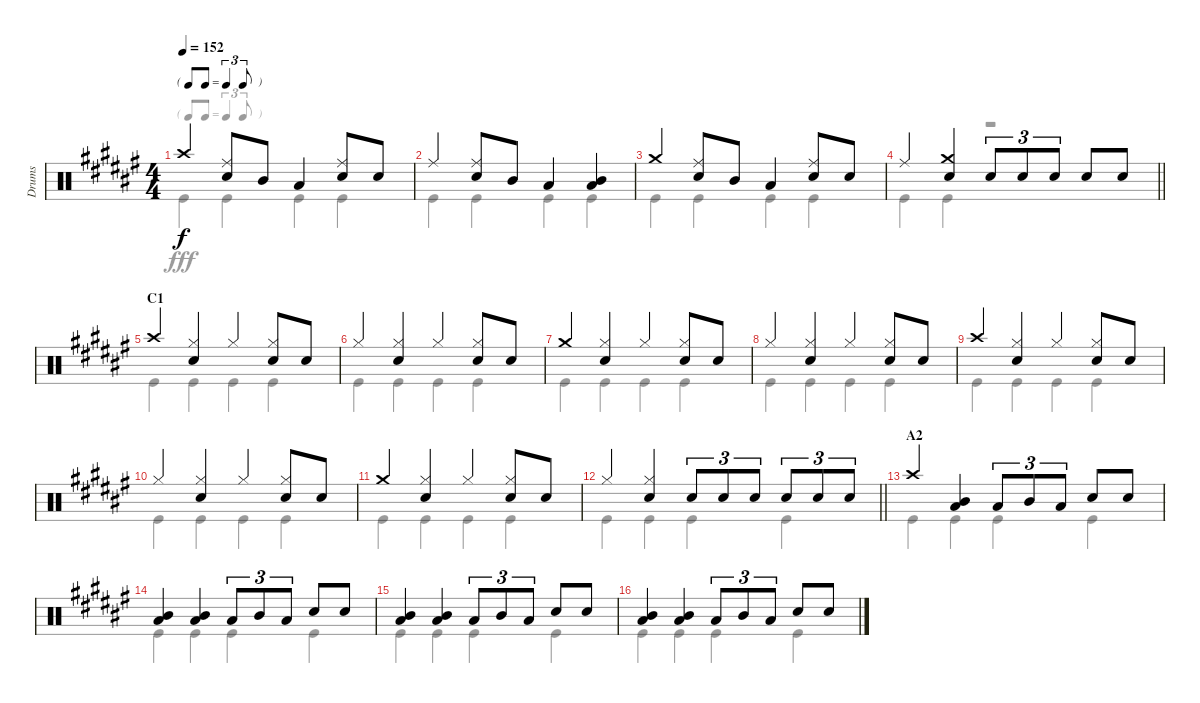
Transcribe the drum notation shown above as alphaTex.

\track ("Drums" "Drums") {instrument percussion}
\staff {score}
\articulation defaults
\voice
\ts (4 4)
\tf triplet8th
\tempo 152
\clef neutral
\ks f# "Crash high (hit)".4{dy f}
("Ride (middle)" "Snare (hit) 2").8 "Mid Tom (hit)".8 "Low Tom (hit)".4 ("Ride (middle)" "Snare (hit) 2").8 "Snare (hit) 2".8 |
"Ride (middle)".4 ("Ride (middle)" "Snare (hit) 2").8 "Mid Tom (hit)".8 "Low Tom (hit)".4 ("Mid Tom (hit)" "Low Tom (hit)").4 |
"Crash medium (hit)".4 ("Ride (middle)" "Snare (hit) 2").8 "Mid Tom (hit)".8 "Low Tom (hit)".4 ("Ride (middle)" "Snare (hit) 2").8 "Snare (hit) 2".8 |
\barLineRight lightlight "Ride (middle)".4
("Crash medium (hit)" "Snare (hit) 2").4 "Snare (hit) 2".8{tu (3 2)} "Snare (hit) 2".8{tu (3 2)} "Snare (hit) 2".8{tu (3 2)} "Snare (hit) 2".8 "Snare (hit) 2".8 |
\section ("" "C1")
"Crash high (hit)".4 ("Hi-Hat (closed)" "Snare (hit) 2").4 "Hi-Hat (closed)".4 ("Hi-Hat (closed)" "Snare (hit) 2").8 "Snare (hit) 2".8 |
"Hi-Hat (closed)".4 ("Hi-Hat (closed)" "Snare (hit) 2").4 "Hi-Hat (closed)".4 ("Hi-Hat (closed)" "Snare (hit) 2").8 "Snare (hit) 2".8 |
"Crash medium (hit)".4 ("Hi-Hat (closed)" "Snare (hit) 2").4 "Hi-Hat (closed)".4 ("Hi-Hat (closed)" "Snare (hit) 2").8 "Snare (hit) 2".8 |
"Hi-Hat (closed)".4 ("Hi-Hat (closed)" "Snare (hit) 2").4 "Hi-Hat (closed)".4 ("Hi-Hat (closed)" "Snare (hit) 2").8 "Snare (hit) 2".8 |
"Crash high (hit)".4 ("Hi-Hat (closed)" "Snare (hit) 2").4 "Hi-Hat (closed)".4 ("Hi-Hat (closed)" "Snare (hit) 2").8 "Snare (hit) 2".8 |
"Hi-Hat (closed)".4 ("Hi-Hat (closed)" "Snare (hit) 2").4 "Hi-Hat (closed)".4 ("Hi-Hat (closed)" "Snare (hit) 2").8 "Snare (hit) 2".8 |
"Crash medium (hit)".4 ("Hi-Hat (closed)" "Snare (hit) 2").4 "Hi-Hat (closed)".4 ("Hi-Hat (closed)" "Snare (hit) 2").8 "Snare (hit) 2".8 |
\barLineRight lightlight "Hi-Hat (closed)".4
("Hi-Hat (closed)" "Snare (hit) 2").4 "Snare (hit) 2".8{tu (3 2)} "Snare (hit) 2".8{tu (3 2)} "Snare (hit) 2".8{tu (3 2)} "Snare (hit) 2".8{tu (3 2)} "Snare (hit) 2".8{tu (3 2)} "Snare (hit) 2".8{tu (3 2)} |
\section ("" "A2")
"Crash high (hit)".4 ("Mid Tom (hit)" "Low Tom (hit)").4 "Low Tom (hit)".8{tu (3 2)} "Mid Tom (hit)".8{tu (3 2)} "Low Tom (hit)".8{tu (3 2)} "Snare (hit) 2".8 "Snare (hit) 2".8 |
("Mid Tom (hit)" "Low Tom (hit)").4 ("Mid Tom (hit)" "Low Tom (hit)").4 "Low Tom (hit)".8{tu (3 2)} "Mid Tom (hit)".8{tu (3 2)} "Low Tom (hit)".8{tu (3 2)} "Snare (hit) 2".8 "Snare (hit) 2".8 |
("Mid Tom (hit)" "Low Tom (hit)").4 ("Mid Tom (hit)" "Low Tom (hit)").4 "Low Tom (hit)".8{tu (3 2)} "Mid Tom (hit)".8{tu (3 2)} "Low Tom (hit)".8{tu (3 2)} "Snare (hit) 2".8 "Snare (hit) 2".8 |
("Mid Tom (hit)" "Low Tom (hit)").4 ("Mid Tom (hit)" "Low Tom (hit)").4 "Low Tom (hit)".8{tu (3 2)} "Mid Tom (hit)".8{tu (3 2)} "Low Tom (hit)".8{tu (3 2)} "Snare (hit) 2".8 "Snare (hit) 2".8
\voice
\clef neutral
\ottava regular
\simile none
\ks f# "Kick (hit)".4{dy fff} "Kick (hit)".4 "Kick (hit)".4 "Kick (hit)".4
|
"Kick (hit)".4 "Kick (hit)".4 "Kick (hit)".4 "Kick (hit)".4 |
"Kick (hit)".4 "Kick (hit)".4 "Kick (hit)".4 "Kick (hit)".4 |
\barLineRight lightlight "Kick (hit)".4 "Kick (hit)".4
r.2 |
"Kick (hit)".4 "Kick (hit)".4 "Kick (hit)".4 "Kick (hit)".4 |
"Kick (hit)".4 "Kick (hit)".4 "Kick (hit)".4 "Kick (hit)".4 |
"Kick (hit)".4 "Kick (hit)".4 "Kick (hit)".4 "Kick (hit)".4 |
"Kick (hit)".4 "Kick (hit)".4 "Kick (hit)".4 "Kick (hit)".4 |
"Kick (hit)".4 "Kick (hit)".4 "Kick (hit)".4 "Kick (hit)".4 |
"Kick (hit)".4 "Kick (hit)".4 "Kick (hit)".4 "Kick (hit)".4 |
"Kick (hit)".4 "Kick (hit)".4 "Kick (hit)".4 "Kick (hit)".4 |
\barLineRight lightlight "Kick (hit)".4 "Kick (hit)".4 "Kick (hit)".4 "Kick (hit)".4
|
"Kick (hit)".4 "Kick (hit)".4 "Kick (hit)".4 "Kick (hit)".4 |
"Kick (hit)".4 "Kick (hit)".4 "Kick (hit)".4 "Kick (hit)".4 |
"Kick (hit)".4 "Kick (hit)".4 "Kick (hit)".4 "Kick (hit)".4 |
"Kick (hit)".4 "Kick (hit)".4 "Kick (hit)".4 "Kick (hit)".4
